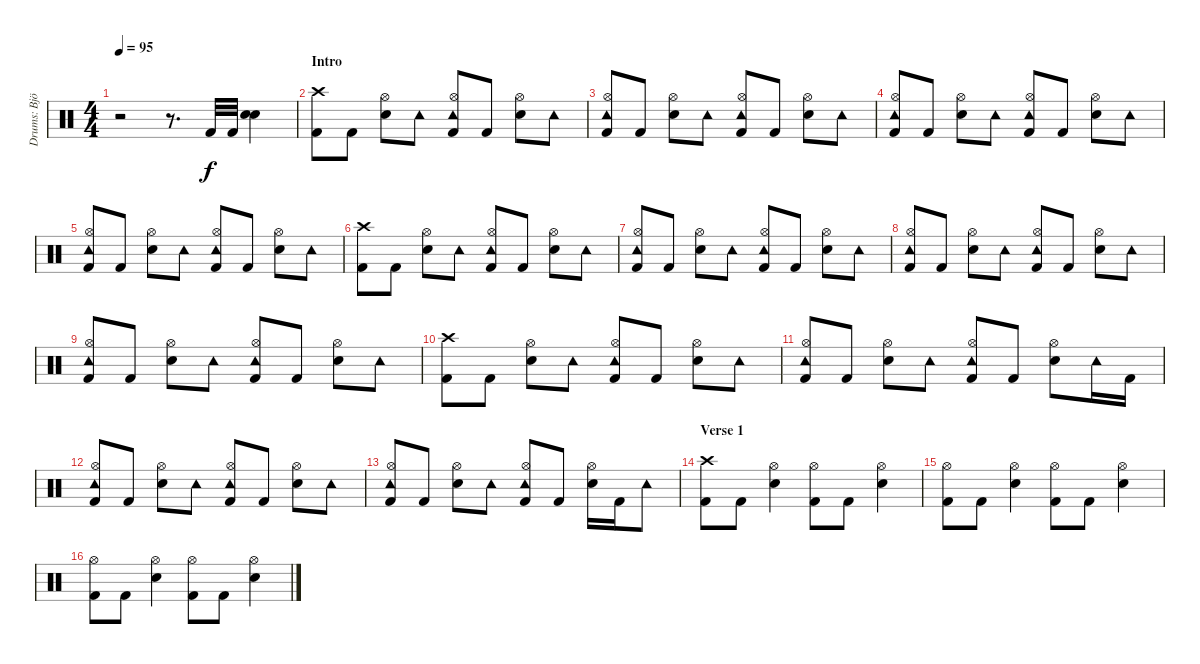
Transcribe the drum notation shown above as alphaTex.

\track ("Drums: Björn Fryklund" "Drums: Bjö") {instrument percussion}
\staff {score}
\articulation defaults
\ts (4 4)
\tempo 95
\clef neutral
\ks c
r.2{dy f} r.8{d} "Kick (hit) 2".32 "Kick (hit) 2".32 ("Snare (hit) 2" "Snare (hit) 2").4 |
\section ("" "Intro")
("Crash high (hit)" "Kick (hit) 2").8 "Kick (hit) 2".8 ("Hi-Hat (open)" "Snare (hit) 2").8 "Tambourine (hit)".8 ("Tambourine (hit)" "Hi-Hat (open)" "Kick (hit) 2").8 "Kick (hit) 2".8 ("Hi-Hat (open)" "Snare (hit) 2").8 "Tambourine (hit)".8 |
("Tambourine (hit)" "Hi-Hat (open)" "Kick (hit) 2").8 "Kick (hit) 2".8 ("Hi-Hat (open)" "Snare (hit) 2").8 "Tambourine (hit)".8 ("Tambourine (hit)" "Hi-Hat (open)" "Kick (hit) 2").8 "Kick (hit) 2".8 ("Hi-Hat (open)" "Snare (hit) 2").8 "Tambourine (hit)".8 |
("Tambourine (hit)" "Hi-Hat (open)" "Kick (hit) 2").8 "Kick (hit) 2".8 ("Hi-Hat (open)" "Snare (hit) 2").8 "Tambourine (hit)".8 ("Tambourine (hit)" "Hi-Hat (open)" "Kick (hit) 2").8 "Kick (hit) 2".8 ("Hi-Hat (open)" "Snare (hit) 2").8 "Tambourine (hit)".8 |
("Tambourine (hit)" "Hi-Hat (open)" "Kick (hit) 2").8 "Kick (hit) 2".8 ("Hi-Hat (open)" "Snare (hit) 2").8 "Tambourine (hit)".8 ("Tambourine (hit)" "Hi-Hat (open)" "Kick (hit) 2").8 "Kick (hit) 2".8 ("Hi-Hat (open)" "Snare (hit) 2").8 "Tambourine (hit)".8 |
("Crash high (hit)" "Kick (hit) 2").8 "Kick (hit) 2".8 ("Hi-Hat (open)" "Snare (hit) 2").8 "Tambourine (hit)".8 ("Tambourine (hit)" "Hi-Hat (open)" "Kick (hit) 2").8 "Kick (hit) 2".8 ("Hi-Hat (open)" "Snare (hit) 2").8 "Tambourine (hit)".8 |
("Tambourine (hit)" "Hi-Hat (open)" "Kick (hit) 2").8 "Kick (hit) 2".8 ("Hi-Hat (open)" "Snare (hit) 2").8 "Tambourine (hit)".8 ("Tambourine (hit)" "Hi-Hat (open)" "Kick (hit) 2").8 "Kick (hit) 2".8 ("Hi-Hat (open)" "Snare (hit) 2").8 "Tambourine (hit)".8 |
("Tambourine (hit)" "Hi-Hat (open)" "Kick (hit) 2").8 "Kick (hit) 2".8 ("Hi-Hat (open)" "Snare (hit) 2").8 "Tambourine (hit)".8 ("Tambourine (hit)" "Hi-Hat (open)" "Kick (hit) 2").8 "Kick (hit) 2".8 ("Hi-Hat (open)" "Snare (hit) 2").8 "Tambourine (hit)".8 |
("Tambourine (hit)" "Hi-Hat (open)" "Kick (hit) 2").8 "Kick (hit) 2".8 ("Hi-Hat (open)" "Snare (hit) 2").8 "Tambourine (hit)".8 ("Tambourine (hit)" "Hi-Hat (open)" "Kick (hit) 2").8 "Kick (hit) 2".8 ("Hi-Hat (open)" "Snare (hit) 2").8 "Tambourine (hit)".8 |
("Crash high (hit)" "Kick (hit) 2").8 "Kick (hit) 2".8 ("Hi-Hat (open)" "Snare (hit) 2").8 "Tambourine (hit)".8 ("Tambourine (hit)" "Hi-Hat (open)" "Kick (hit) 2").8 "Kick (hit) 2".8 ("Hi-Hat (open)" "Snare (hit) 2").8 "Tambourine (hit)".8 |
("Tambourine (hit)" "Hi-Hat (open)" "Kick (hit) 2").8 "Kick (hit) 2".8 ("Hi-Hat (open)" "Snare (hit) 2").8 "Tambourine (hit)".8 ("Tambourine (hit)" "Hi-Hat (open)" "Kick (hit) 2").8 "Kick (hit) 2".8 ("Hi-Hat (open)" "Snare (hit) 2").8 "Tambourine (hit)".16 "Kick (hit) 2".16 |
("Tambourine (hit)" "Hi-Hat (open)" "Kick (hit) 2").8 "Kick (hit) 2".8 ("Hi-Hat (open)" "Snare (hit) 2").8 "Tambourine (hit)".8 ("Tambourine (hit)" "Hi-Hat (open)" "Kick (hit) 2").8 "Kick (hit) 2".8 ("Hi-Hat (open)" "Snare (hit) 2").8 "Tambourine (hit)".8 |
("Tambourine (hit)" "Hi-Hat (open)" "Kick (hit) 2").8 "Kick (hit) 2".8 ("Hi-Hat (open)" "Snare (hit) 2").8 "Tambourine (hit)".8 ("Tambourine (hit)" "Hi-Hat (open)" "Kick (hit) 2").8 "Kick (hit) 2".8 ("Hi-Hat (open)" "Snare (hit) 2").16 "Kick (hit) 2".16 "Tambourine (hit)".8 |
\section ("" "Verse 1")
("Crash high (hit)" "Kick (hit) 2").8 "Kick (hit) 2".8 ("Hi-Hat (open)" "Snare (hit) 2").4 ("Hi-Hat (open)" "Kick (hit) 2").8 "Kick (hit) 2".8 ("Hi-Hat (open)" "Snare (hit) 2").4 |
("Hi-Hat (open)" "Kick (hit) 2").8 "Kick (hit) 2".8 ("Hi-Hat (open)" "Snare (hit) 2").4 ("Hi-Hat (open)" "Kick (hit) 2").8 "Kick (hit) 2".8 ("Hi-Hat (open)" "Snare (hit) 2").4 |
("Hi-Hat (open)" "Kick (hit) 2").8 "Kick (hit) 2".8 ("Hi-Hat (open)" "Snare (hit) 2").4 ("Hi-Hat (open)" "Kick (hit) 2").8 "Kick (hit) 2".8 ("Hi-Hat (open)" "Snare (hit) 2").4
